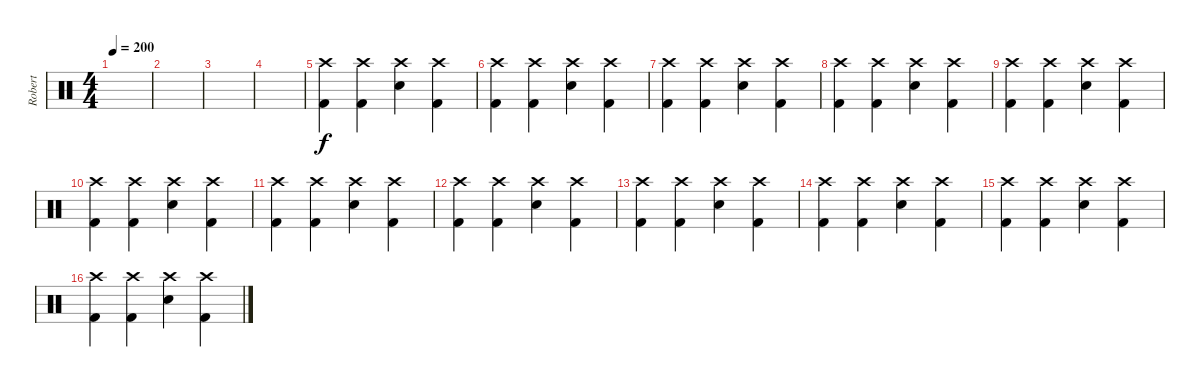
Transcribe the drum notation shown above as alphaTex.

\track ("Robert" "Robert") {instrument percussion}
\staff {score}
\articulation defaults
\ts (4 4)
\tempo 200
\clef neutral
\ks c
|
|
|
|
("Crash high (hit)" "Kick (hit) 2").4 ("Crash high (hit)" "Kick (hit) 2").4 ("Crash high (hit)" "Electric Snare (hit)").4 ("Crash high (hit)" "Kick (hit) 2").4 |
("Crash high (hit)" "Kick (hit) 2").4 ("Crash high (hit)" "Kick (hit) 2").4 ("Crash high (hit)" "Electric Snare (hit)").4 ("Crash high (hit)" "Kick (hit) 2").4 |
("Crash high (hit)" "Kick (hit) 2").4 ("Crash high (hit)" "Kick (hit) 2").4 ("Crash high (hit)" "Electric Snare (hit)").4 ("Crash high (hit)" "Kick (hit) 2").4 |
("Crash high (hit)" "Kick (hit) 2").4 ("Crash high (hit)" "Kick (hit) 2").4 ("Crash high (hit)" "Electric Snare (hit)").4 ("Crash high (hit)" "Kick (hit) 2").4 |
("Crash high (hit)" "Kick (hit) 2").4 ("Crash high (hit)" "Kick (hit) 2").4 ("Crash high (hit)" "Electric Snare (hit)").4 ("Crash high (hit)" "Kick (hit) 2").4 |
("Crash high (hit)" "Kick (hit) 2").4 ("Crash high (hit)" "Kick (hit) 2").4 ("Crash high (hit)" "Electric Snare (hit)").4 ("Crash high (hit)" "Kick (hit) 2").4 |
("Crash high (hit)" "Kick (hit) 2").4 ("Crash high (hit)" "Kick (hit) 2").4 ("Crash high (hit)" "Electric Snare (hit)").4 ("Crash high (hit)" "Kick (hit) 2").4 |
("Crash high (hit)" "Kick (hit) 2").4 ("Crash high (hit)" "Kick (hit) 2").4 ("Crash high (hit)" "Electric Snare (hit)").4 ("Crash high (hit)" "Kick (hit) 2").4 |
("Crash high (hit)" "Kick (hit) 2").4 ("Crash high (hit)" "Kick (hit) 2").4 ("Crash high (hit)" "Electric Snare (hit)").4 ("Crash high (hit)" "Kick (hit) 2").4 |
("Crash high (hit)" "Kick (hit) 2").4 ("Crash high (hit)" "Kick (hit) 2").4 ("Crash high (hit)" "Electric Snare (hit)").4 ("Crash high (hit)" "Kick (hit) 2").4 |
("Crash high (hit)" "Kick (hit) 2").4 ("Crash high (hit)" "Kick (hit) 2").4 ("Crash high (hit)" "Electric Snare (hit)").4 ("Crash high (hit)" "Kick (hit) 2").4 |
("Crash high (hit)" "Kick (hit) 2").4 ("Crash high (hit)" "Kick (hit) 2").4 ("Crash high (hit)" "Electric Snare (hit)").4 ("Crash high (hit)" "Kick (hit) 2").4
